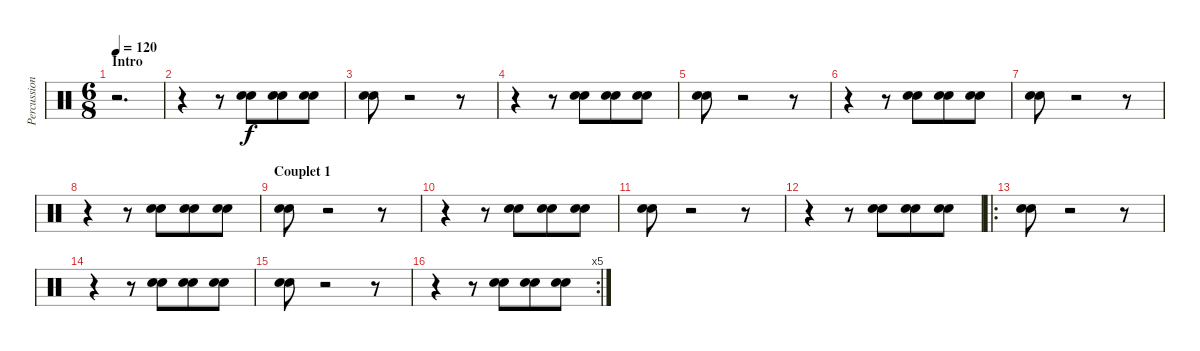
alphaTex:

\track ("Percussions" "Percussion") {instrument percussion}
\staff {score}
\articulation defaults
\ts (6 8)
\section ("" "Intro")
\tempo 120
\clef neutral
\ks c
r.2{d dy f} |
r.4 r.8 ("Electric Snare (hit)" "Electric Snare (hit)").8 ("Electric Snare (hit)" "Electric Snare (hit)").8 ("Electric Snare (hit)" "Electric Snare (hit)").8 |
("Electric Snare (hit)" "Electric Snare (hit)").8 r.2 r.8 |
r.4 r.8 ("Electric Snare (hit)" "Electric Snare (hit)").8 ("Electric Snare (hit)" "Electric Snare (hit)").8 ("Electric Snare (hit)" "Electric Snare (hit)").8 |
("Electric Snare (hit)" "Electric Snare (hit)").8 r.2 r.8 |
r.4 r.8 ("Electric Snare (hit)" "Electric Snare (hit)").8 ("Electric Snare (hit)" "Electric Snare (hit)").8 ("Electric Snare (hit)" "Electric Snare (hit)").8 |
("Electric Snare (hit)" "Electric Snare (hit)").8 r.2 r.8 |
r.4 r.8 ("Electric Snare (hit)" "Electric Snare (hit)").8 ("Electric Snare (hit)" "Electric Snare (hit)").8 ("Electric Snare (hit)" "Electric Snare (hit)").8 |
\section ("" "Couplet 1")
("Electric Snare (hit)" "Electric Snare (hit)").8 r.2 r.8 |
r.4 r.8 ("Electric Snare (hit)" "Electric Snare (hit)").8 ("Electric Snare (hit)" "Electric Snare (hit)").8 ("Electric Snare (hit)" "Electric Snare (hit)").8 |
("Electric Snare (hit)" "Electric Snare (hit)").8 r.2 r.8 |
r.4 r.8 ("Electric Snare (hit)" "Electric Snare (hit)").8 ("Electric Snare (hit)" "Electric Snare (hit)").8 ("Electric Snare (hit)" "Electric Snare (hit)").8 |
\ro
("Electric Snare (hit)" "Electric Snare (hit)").8 r.2 r.8 |
r.4 r.8 ("Electric Snare (hit)" "Electric Snare (hit)").8 ("Electric Snare (hit)" "Electric Snare (hit)").8 ("Electric Snare (hit)" "Electric Snare (hit)").8 |
("Electric Snare (hit)" "Electric Snare (hit)").8 r.2 r.8 |
\rc 5
r.4 r.8 ("Electric Snare (hit)" "Electric Snare (hit)").8 ("Electric Snare (hit)" "Electric Snare (hit)").8 ("Electric Snare (hit)" "Electric Snare (hit)").8
